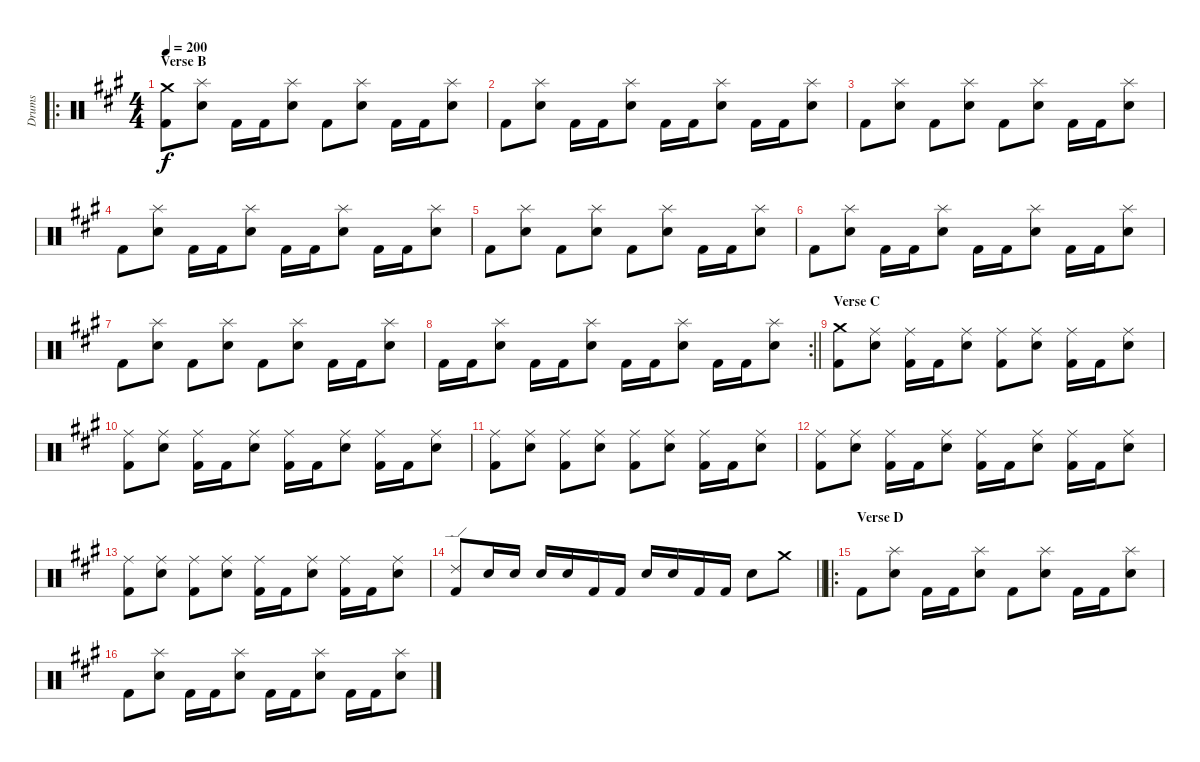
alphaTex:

\track ("Drums" "Drums") {instrument percussion}
\staff {score}
\articulation defaults
\ro
\ts (4 4)
\section ("" "Verse B")
\tempo 200
\clef neutral
\ks f#minor
("Crash medium (hit)" "Kick (hit) 2").8{dy f} ("Splash (hit)" "Snare (hit) 2").8 "Kick (hit) 2".16 "Kick (hit) 2".16 ("Splash (hit)" "Snare (hit) 2").8 "Kick (hit) 2".8 ("Splash (hit)" "Snare (hit) 2").8 "Kick (hit) 2".16 "Kick (hit) 2".16 ("Splash (hit)" "Snare (hit) 2").8 |
"Kick (hit) 2".8 ("Splash (hit)" "Snare (hit) 2").8 "Kick (hit) 2".16 "Kick (hit) 2".16 ("Splash (hit)" "Snare (hit) 2").8 "Kick (hit) 2".16 "Kick (hit) 2".16 ("Splash (hit)" "Snare (hit) 2").8 "Kick (hit) 2".16 "Kick (hit) 2".16 ("Splash (hit)" "Snare (hit) 2").8 |
"Kick (hit) 2".8 ("Splash (hit)" "Snare (hit) 2").8 "Kick (hit) 2".8 ("Splash (hit)" "Snare (hit) 2").8 "Kick (hit) 2".8 ("Splash (hit)" "Snare (hit) 2").8 "Kick (hit) 2".16 "Kick (hit) 2".16 ("Splash (hit)" "Snare (hit) 2").8 |
"Kick (hit) 2".8 ("Splash (hit)" "Snare (hit) 2").8 "Kick (hit) 2".16 "Kick (hit) 2".16 ("Splash (hit)" "Snare (hit) 2").8 "Kick (hit) 2".16 "Kick (hit) 2".16 ("Splash (hit)" "Snare (hit) 2").8 "Kick (hit) 2".16 "Kick (hit) 2".16 ("Splash (hit)" "Snare (hit) 2").8 |
"Kick (hit) 2".8 ("Splash (hit)" "Snare (hit) 2").8 "Kick (hit) 2".8 ("Splash (hit)" "Snare (hit) 2").8 "Kick (hit) 2".8 ("Splash (hit)" "Snare (hit) 2").8 "Kick (hit) 2".16 "Kick (hit) 2".16 ("Splash (hit)" "Snare (hit) 2").8 |
"Kick (hit) 2".8 ("Splash (hit)" "Snare (hit) 2").8 "Kick (hit) 2".16 "Kick (hit) 2".16 ("Splash (hit)" "Snare (hit) 2").8 "Kick (hit) 2".16 "Kick (hit) 2".16 ("Splash (hit)" "Snare (hit) 2").8 "Kick (hit) 2".16 "Kick (hit) 2".16 ("Splash (hit)" "Snare (hit) 2").8 |
"Kick (hit) 2".8 ("Splash (hit)" "Snare (hit) 2").8 "Kick (hit) 2".8 ("Splash (hit)" "Snare (hit) 2").8 "Kick (hit) 2".8 ("Splash (hit)" "Snare (hit) 2").8 "Kick (hit) 2".16 "Kick (hit) 2".16 ("Splash (hit)" "Snare (hit) 2").8 |
\rc 2
\barLineRight lightlight "Kick (hit) 2".16 "Kick (hit) 2".16
("Splash (hit)" "Snare (hit) 2").8 "Kick (hit) 2".16 "Kick (hit) 2".16 ("Splash (hit)" "Snare (hit) 2").8 "Kick (hit) 2".16 "Kick (hit) 2".16 ("Splash (hit)" "Snare (hit) 2").8 "Kick (hit) 2".16 "Kick (hit) 2".16 ("Splash (hit)" "Snare (hit) 2").8 |
\section ("" "Verse C")
("Crash medium (hit)" "Kick (hit) 2").8 ("Ride (middle)" "Snare (hit) 2").8 ("Ride (middle)" "Kick (hit) 2").16 "Kick (hit) 2".16 ("Ride (middle)" "Snare (hit) 2").8 ("Ride (middle)" "Kick (hit) 2").8 ("Ride (middle)" "Snare (hit) 2").8 ("Ride (middle)" "Kick (hit) 2").16 "Kick (hit) 2".16 ("Ride (middle)" "Snare (hit) 2").8 |
("Ride (middle)" "Kick (hit) 2").8 ("Ride (middle)" "Snare (hit) 2").8 ("Ride (middle)" "Kick (hit) 2").16 "Kick (hit) 2".16 ("Ride (middle)" "Snare (hit) 2").8 ("Ride (middle)" "Kick (hit) 2").16 "Kick (hit) 2".16 ("Ride (middle)" "Snare (hit) 2").8 ("Ride (middle)" "Kick (hit) 2").16 "Kick (hit) 2".16 ("Ride (middle)" "Snare (hit) 2").8 |
("Ride (middle)" "Kick (hit) 2").8 ("Ride (middle)" "Snare (hit) 2").8 ("Ride (middle)" "Kick (hit) 2").8 ("Ride (middle)" "Snare (hit) 2").8 ("Ride (middle)" "Kick (hit) 2").8 ("Ride (middle)" "Snare (hit) 2").8 ("Ride (middle)" "Kick (hit) 2").16 "Kick (hit) 2".16 ("Ride (middle)" "Snare (hit) 2").8 |
("Ride (middle)" "Kick (hit) 2").8 ("Ride (middle)" "Snare (hit) 2").8 ("Ride (middle)" "Kick (hit) 2").16 "Kick (hit) 2".16 ("Ride (middle)" "Snare (hit) 2").8 ("Ride (middle)" "Kick (hit) 2").16 "Kick (hit) 2".16 ("Ride (middle)" "Snare (hit) 2").8 ("Ride (middle)" "Kick (hit) 2").16 "Kick (hit) 2".16 ("Ride (middle)" "Snare (hit) 2").8 |
("Ride (middle)" "Kick (hit) 2").8 ("Ride (middle)" "Snare (hit) 2").8 ("Ride (middle)" "Kick (hit) 2").8 ("Ride (middle)" "Snare (hit) 2").8 ("Ride (middle)" "Kick (hit) 2").16 "Kick (hit) 2".16 ("Ride (middle)" "Snare (hit) 2").8 ("Ride (middle)" "Kick (hit) 2").16 "Kick (hit) 2".16 ("Ride (middle)" "Snare (hit) 2").8 |
\barLineRight lightlight
("Ride (edge) 2" "Kick (hit) 2").8 "Snare (hit) 2".16 "Snare (hit) 2".16 "Snare (hit) 2".16 "Snare (hit) 2".16 "Kick (hit) 2".16 "Kick (hit) 2".16 "Snare (hit) 2".16 "Snare (hit) 2".16 "Kick (hit) 2".16 "Kick (hit) 2".16 "Snare (hit) 2".8 "Crash medium (hit)".8 |
\ro
\section ("" "Verse D")
"Kick (hit) 2".8 ("Splash (hit)" "Snare (hit) 2").8 "Kick (hit) 2".16 "Kick (hit) 2".16 ("Splash (hit)" "Snare (hit) 2").8 "Kick (hit) 2".8 ("Splash (hit)" "Snare (hit) 2").8 "Kick (hit) 2".16 "Kick (hit) 2".16 ("Splash (hit)" "Snare (hit) 2").8 |
"Kick (hit) 2".8 ("Splash (hit)" "Snare (hit) 2").8 "Kick (hit) 2".16 "Kick (hit) 2".16 ("Splash (hit)" "Snare (hit) 2").8 "Kick (hit) 2".16 "Kick (hit) 2".16 ("Splash (hit)" "Snare (hit) 2").8 "Kick (hit) 2".16 "Kick (hit) 2".16 ("Splash (hit)" "Snare (hit) 2").8
